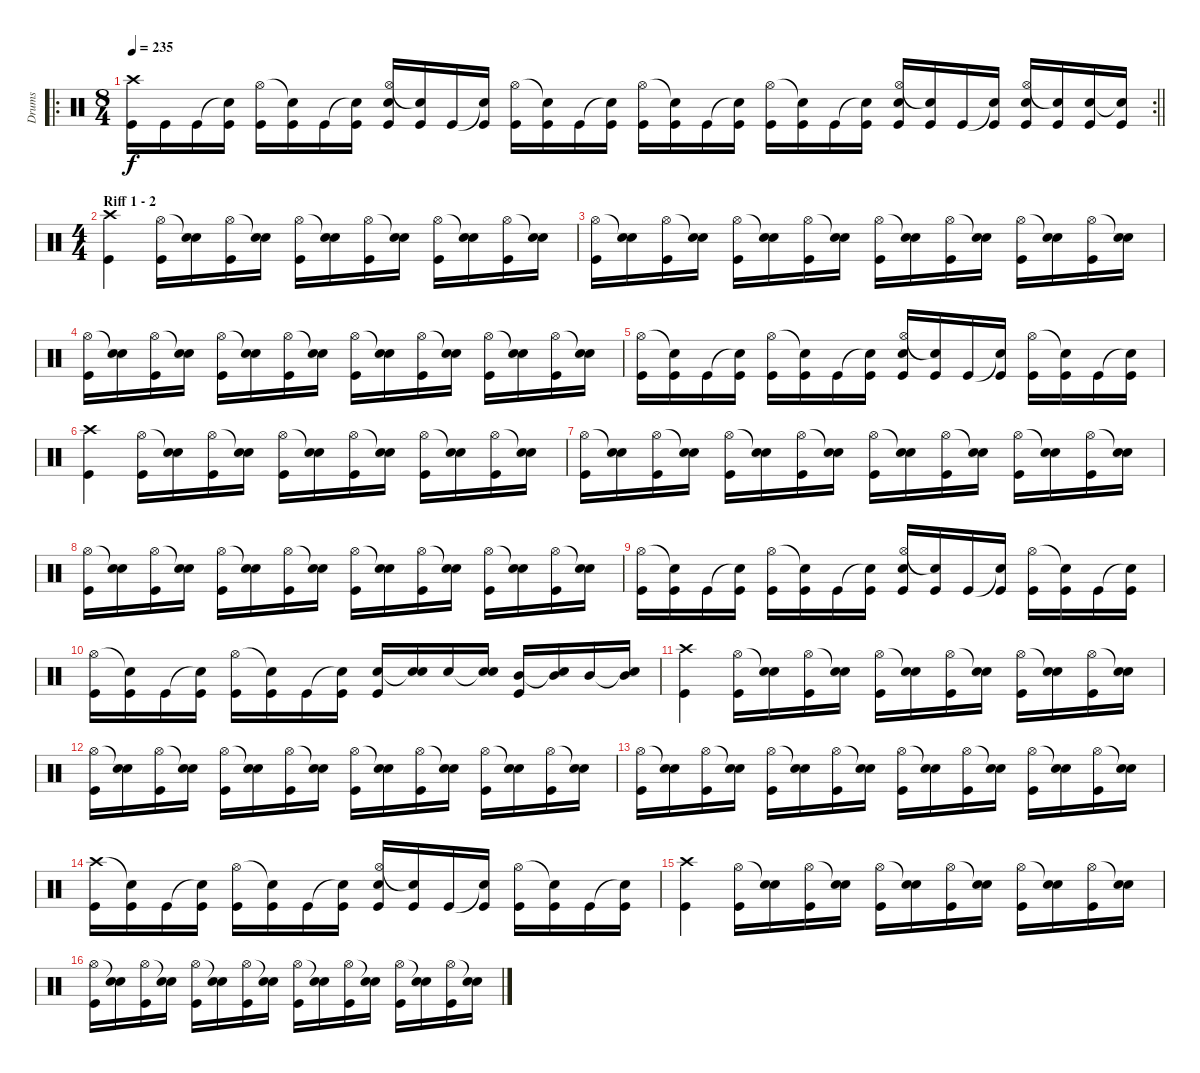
\track ("Drums" "Drums") {instrument percussion}
\staff {score}
\articulation defaults
\ro
\rc 2
\ts (8 4)
\tempo 235
\clef neutral
\barLineRight lightlight
\ks c
("Crash high (hit)" "Kick (hit)").16{dy f} "Kick (hit)".16 "Kick (hit)".16 ("Snare (hit)"{t} "Kick (hit)").16 ("Hi-Hat (open)" "Kick (hit)").16 ("Snare (hit)"{t} "Kick (hit)").16 "Kick (hit)".16 ("Snare (hit)"{t} "Kick (hit)").16 ("Hi-Hat (open)" "Electric Snare (hit)" "Kick (hit)").16 ("Snare (hit)"{t} "Kick (hit)").16 "Kick (hit)".16 ("Snare (hit)"{t} "Kick (hit)").16 ("Hi-Hat (open)" "Kick (hit)").16 ("Snare (hit)"{t} "Kick (hit)").16 "Kick (hit)".16 ("Snare (hit)"{t} "Kick (hit)").16 ("Hi-Hat (open)" "Kick (hit)").16 ("Snare (hit)"{t} "Kick (hit)").16 "Kick (hit)".16 ("Snare (hit)"{t} "Kick (hit)").16 ("Hi-Hat (open)" "Kick (hit)").16 ("Snare (hit)"{t} "Kick (hit)").16 "Kick (hit)".16 ("Snare (hit)"{t} "Kick (hit)").16 ("Hi-Hat (open)" "Electric Snare (hit)" "Kick (hit)").16 ("Snare (hit)"{t} "Kick (hit)").16 "Kick (hit)".16 ("Snare (hit)"{t} "Kick (hit)").16 ("Hi-Hat (open)" "Electric Snare (hit)" "Kick (hit)").16 ("Snare (hit)"{t} "Kick (hit)").16 ("Electric Snare (hit)" "Kick (hit)").16 ("Snare (hit)"{t} "Kick (hit)").16 |
\ts (4 4)
\section ("" "Riff 1 - 2")
("Crash high (hit)" "Kick (hit)").4 ("Hi-Hat (open)" "Kick (hit)").16 ("Snare (hit)"{t} "Electric Snare (hit)").16 ("Hi-Hat (open)" "Kick (hit)").16 ("Snare (hit)"{t} "Electric Snare (hit)").16 ("Hi-Hat (open)" "Kick (hit)").16 ("Snare (hit)"{t} "Electric Snare (hit)").16 ("Hi-Hat (open)" "Kick (hit)").16 ("Snare (hit)"{t} "Electric Snare (hit)").16 ("Hi-Hat (open)" "Kick (hit)").16 ("Snare (hit)"{t} "Electric Snare (hit)").16 ("Hi-Hat (open)" "Kick (hit)").16 ("Snare (hit)"{t} "Electric Snare (hit)").16 |
("Hi-Hat (open)" "Kick (hit)").16 ("Snare (hit)"{t} "Electric Snare (hit)").16 ("Hi-Hat (open)" "Kick (hit)").16 ("Snare (hit)"{t} "Electric Snare (hit)").16 ("Hi-Hat (open)" "Kick (hit)").16 ("Snare (hit)"{t} "Electric Snare (hit)").16 ("Hi-Hat (open)" "Kick (hit)").16 ("Snare (hit)"{t} "Electric Snare (hit)").16 ("Hi-Hat (open)" "Kick (hit)").16 ("Snare (hit)"{t} "Electric Snare (hit)").16 ("Hi-Hat (open)" "Kick (hit)").16 ("Snare (hit)"{t} "Electric Snare (hit)").16 ("Hi-Hat (open)" "Kick (hit)").16 ("Snare (hit)"{t} "Electric Snare (hit)").16 ("Hi-Hat (open)" "Kick (hit)").16 ("Snare (hit)"{t} "Electric Snare (hit)").16 |
("Hi-Hat (open)" "Kick (hit)").16 ("Snare (hit)"{t} "Electric Snare (hit)").16 ("Hi-Hat (open)" "Kick (hit)").16 ("Snare (hit)"{t} "Electric Snare (hit)").16 ("Hi-Hat (open)" "Kick (hit)").16 ("Snare (hit)"{t} "Electric Snare (hit)").16 ("Hi-Hat (open)" "Kick (hit)").16 ("Snare (hit)"{t} "Electric Snare (hit)").16 ("Hi-Hat (open)" "Kick (hit)").16 ("Snare (hit)"{t} "Electric Snare (hit)").16 ("Hi-Hat (open)" "Kick (hit)").16 ("Snare (hit)"{t} "Electric Snare (hit)").16 ("Hi-Hat (open)" "Kick (hit)").16 ("Snare (hit)"{t} "Electric Snare (hit)").16 ("Hi-Hat (open)" "Kick (hit)").16 ("Snare (hit)"{t} "Electric Snare (hit)").16 |
("Hi-Hat (open)" "Kick (hit)").16 ("Snare (hit)"{t} "Kick (hit)").16 "Kick (hit)".16 ("Snare (hit)"{t} "Kick (hit)").16 ("Hi-Hat (open)" "Kick (hit)").16 ("Snare (hit)"{t} "Kick (hit)").16 "Kick (hit)".16 ("Snare (hit)"{t} "Kick (hit)").16 ("Hi-Hat (open)" "Electric Snare (hit)" "Kick (hit)").16 ("Snare (hit)"{t} "Kick (hit)").16 "Kick (hit)".16 ("Snare (hit)"{t} "Kick (hit)").16 ("Hi-Hat (open)" "Kick (hit)").16 ("Snare (hit)"{t} "Kick (hit)").16 "Kick (hit)".16 ("Snare (hit)"{t} "Kick (hit)").16 |
("Crash high (hit)" "Kick (hit)").4 ("Hi-Hat (open)" "Kick (hit)").16 ("Snare (hit)"{t} "Electric Snare (hit)").16 ("Hi-Hat (open)" "Kick (hit)").16 ("Snare (hit)"{t} "Electric Snare (hit)").16 ("Hi-Hat (open)" "Kick (hit)").16 ("Snare (hit)"{t} "Electric Snare (hit)").16 ("Hi-Hat (open)" "Kick (hit)").16 ("Snare (hit)"{t} "Electric Snare (hit)").16 ("Hi-Hat (open)" "Kick (hit)").16 ("Snare (hit)"{t} "Electric Snare (hit)").16 ("Hi-Hat (open)" "Kick (hit)").16 ("Snare (hit)"{t} "Electric Snare (hit)").16 |
("Hi-Hat (open)" "Kick (hit)").16 ("Snare (hit)"{t} "Electric Snare (hit)").16 ("Hi-Hat (open)" "Kick (hit)").16 ("Snare (hit)"{t} "Electric Snare (hit)").16 ("Hi-Hat (open)" "Kick (hit)").16 ("Snare (hit)"{t} "Electric Snare (hit)").16 ("Hi-Hat (open)" "Kick (hit)").16 ("Snare (hit)"{t} "Electric Snare (hit)").16 ("Hi-Hat (open)" "Kick (hit)").16 ("Snare (hit)"{t} "Electric Snare (hit)").16 ("Hi-Hat (open)" "Kick (hit)").16 ("Snare (hit)"{t} "Electric Snare (hit)").16 ("Hi-Hat (open)" "Kick (hit)").16 ("Snare (hit)"{t} "Electric Snare (hit)").16 ("Hi-Hat (open)" "Kick (hit)").16 ("Snare (hit)"{t} "Electric Snare (hit)").16 |
("Hi-Hat (open)" "Kick (hit)").16 ("Snare (hit)"{t} "Electric Snare (hit)").16 ("Hi-Hat (open)" "Kick (hit)").16 ("Snare (hit)"{t} "Electric Snare (hit)").16 ("Hi-Hat (open)" "Kick (hit)").16 ("Snare (hit)"{t} "Electric Snare (hit)").16 ("Hi-Hat (open)" "Kick (hit)").16 ("Snare (hit)"{t} "Electric Snare (hit)").16 ("Hi-Hat (open)" "Kick (hit)").16 ("Snare (hit)"{t} "Electric Snare (hit)").16 ("Hi-Hat (open)" "Kick (hit)").16 ("Snare (hit)"{t} "Electric Snare (hit)").16 ("Hi-Hat (open)" "Kick (hit)").16 ("Snare (hit)"{t} "Electric Snare (hit)").16 ("Hi-Hat (open)" "Kick (hit)").16 ("Snare (hit)"{t} "Electric Snare (hit)").16 |
("Hi-Hat (open)" "Kick (hit)").16 ("Snare (hit)"{t} "Kick (hit)").16 "Kick (hit)".16 ("Snare (hit)"{t} "Kick (hit)").16 ("Hi-Hat (open)" "Kick (hit)").16 ("Snare (hit)"{t} "Kick (hit)").16 "Kick (hit)".16 ("Snare (hit)"{t} "Kick (hit)").16 ("Hi-Hat (open)" "Electric Snare (hit)" "Kick (hit)").16 ("Snare (hit)"{t} "Kick (hit)").16 "Kick (hit)".16 ("Snare (hit)"{t} "Kick (hit)").16 ("Hi-Hat (open)" "Kick (hit)").16 ("Snare (hit)"{t} "Kick (hit)").16 "Kick (hit)".16 ("Snare (hit)"{t} "Kick (hit)").16 |
("Hi-Hat (open)" "Kick (hit)").16 ("Snare (hit)"{t} "Kick (hit)").16 "Kick (hit)".16 ("Snare (hit)"{t} "Kick (hit)").16 ("Hi-Hat (open)" "Kick (hit)").16 ("Snare (hit)"{t} "Kick (hit)").16 "Kick (hit)".16 ("Snare (hit)"{t} "Kick (hit)").16 ("Electric Snare (hit)" "Kick (hit)").16 ("Snare (hit)"{t} "Electric Snare (hit)").16 "Electric Snare (hit)".16 ("Snare (hit)"{t} "Electric Snare (hit)").16 ("Mid Tom (hit)" "Kick (hit)").16 ("Snare (hit)"{t} "Mid Tom (hit)").16 "Mid Tom (hit)".16 ("Snare (hit)"{t} "Mid Tom (hit)").16 |
("Crash high (hit)" "Kick (hit)").4 ("Hi-Hat (open)" "Kick (hit)").16 ("Snare (hit)"{t} "Electric Snare (hit)").16 ("Hi-Hat (open)" "Kick (hit)").16 ("Snare (hit)"{t} "Electric Snare (hit)").16 ("Hi-Hat (open)" "Kick (hit)").16 ("Snare (hit)"{t} "Electric Snare (hit)").16 ("Hi-Hat (open)" "Kick (hit)").16 ("Snare (hit)"{t} "Electric Snare (hit)").16 ("Hi-Hat (open)" "Kick (hit)").16 ("Snare (hit)"{t} "Electric Snare (hit)").16 ("Hi-Hat (open)" "Kick (hit)").16 ("Snare (hit)"{t} "Electric Snare (hit)").16 |
("Hi-Hat (open)" "Kick (hit)").16 ("Snare (hit)"{t} "Electric Snare (hit)").16 ("Hi-Hat (open)" "Kick (hit)").16 ("Snare (hit)"{t} "Electric Snare (hit)").16 ("Hi-Hat (open)" "Kick (hit)").16 ("Snare (hit)"{t} "Electric Snare (hit)").16 ("Hi-Hat (open)" "Kick (hit)").16 ("Snare (hit)"{t} "Electric Snare (hit)").16 ("Hi-Hat (open)" "Kick (hit)").16 ("Snare (hit)"{t} "Electric Snare (hit)").16 ("Hi-Hat (open)" "Kick (hit)").16 ("Snare (hit)"{t} "Electric Snare (hit)").16 ("Hi-Hat (open)" "Kick (hit)").16 ("Snare (hit)"{t} "Electric Snare (hit)").16 ("Hi-Hat (open)" "Kick (hit)").16 ("Snare (hit)"{t} "Electric Snare (hit)").16 |
("Hi-Hat (open)" "Kick (hit)").16 ("Snare (hit)"{t} "Electric Snare (hit)").16 ("Hi-Hat (open)" "Kick (hit)").16 ("Snare (hit)"{t} "Electric Snare (hit)").16 ("Hi-Hat (open)" "Kick (hit)").16 ("Snare (hit)"{t} "Electric Snare (hit)").16 ("Hi-Hat (open)" "Kick (hit)").16 ("Snare (hit)"{t} "Electric Snare (hit)").16 ("Hi-Hat (open)" "Kick (hit)").16 ("Snare (hit)"{t} "Electric Snare (hit)").16 ("Hi-Hat (open)" "Kick (hit)").16 ("Snare (hit)"{t} "Electric Snare (hit)").16 ("Hi-Hat (open)" "Kick (hit)").16 ("Snare (hit)"{t} "Electric Snare (hit)").16 ("Hi-Hat (open)" "Kick (hit)").16 ("Snare (hit)"{t} "Electric Snare (hit)").16 |
("Crash high (hit)" "Kick (hit)").16 ("Snare (hit)"{t} "Kick (hit)").16 "Kick (hit)".16 ("Snare (hit)"{t} "Kick (hit)").16 ("Hi-Hat (open)" "Kick (hit)").16 ("Snare (hit)"{t} "Kick (hit)").16 "Kick (hit)".16 ("Snare (hit)"{t} "Kick (hit)").16 ("Hi-Hat (open)" "Electric Snare (hit)" "Kick (hit)").16 ("Snare (hit)"{t} "Kick (hit)").16 "Kick (hit)".16 ("Snare (hit)"{t} "Kick (hit)").16 ("Hi-Hat (open)" "Kick (hit)").16 ("Snare (hit)"{t} "Kick (hit)").16 "Kick (hit)".16 ("Snare (hit)"{t} "Kick (hit)").16 |
("Crash high (hit)" "Kick (hit)").4 ("Hi-Hat (open)" "Kick (hit)").16 ("Snare (hit)"{t} "Electric Snare (hit)").16 ("Hi-Hat (open)" "Kick (hit)").16 ("Snare (hit)"{t} "Electric Snare (hit)").16 ("Hi-Hat (open)" "Kick (hit)").16 ("Snare (hit)"{t} "Electric Snare (hit)").16 ("Hi-Hat (open)" "Kick (hit)").16 ("Snare (hit)"{t} "Electric Snare (hit)").16 ("Hi-Hat (open)" "Kick (hit)").16 ("Snare (hit)"{t} "Electric Snare (hit)").16 ("Hi-Hat (open)" "Kick (hit)").16 ("Snare (hit)"{t} "Electric Snare (hit)").16 |
("Hi-Hat (open)" "Kick (hit)").16 ("Snare (hit)"{t} "Electric Snare (hit)").16 ("Hi-Hat (open)" "Kick (hit)").16 ("Snare (hit)"{t} "Electric Snare (hit)").16 ("Hi-Hat (open)" "Kick (hit)").16 ("Snare (hit)"{t} "Electric Snare (hit)").16 ("Hi-Hat (open)" "Kick (hit)").16 ("Snare (hit)"{t} "Electric Snare (hit)").16 ("Hi-Hat (open)" "Kick (hit)").16 ("Snare (hit)"{t} "Electric Snare (hit)").16 ("Hi-Hat (open)" "Kick (hit)").16 ("Snare (hit)"{t} "Electric Snare (hit)").16 ("Hi-Hat (open)" "Kick (hit)").16 ("Snare (hit)"{t} "Electric Snare (hit)").16 ("Hi-Hat (open)" "Kick (hit)").16 ("Snare (hit)"{t} "Electric Snare (hit)").16
